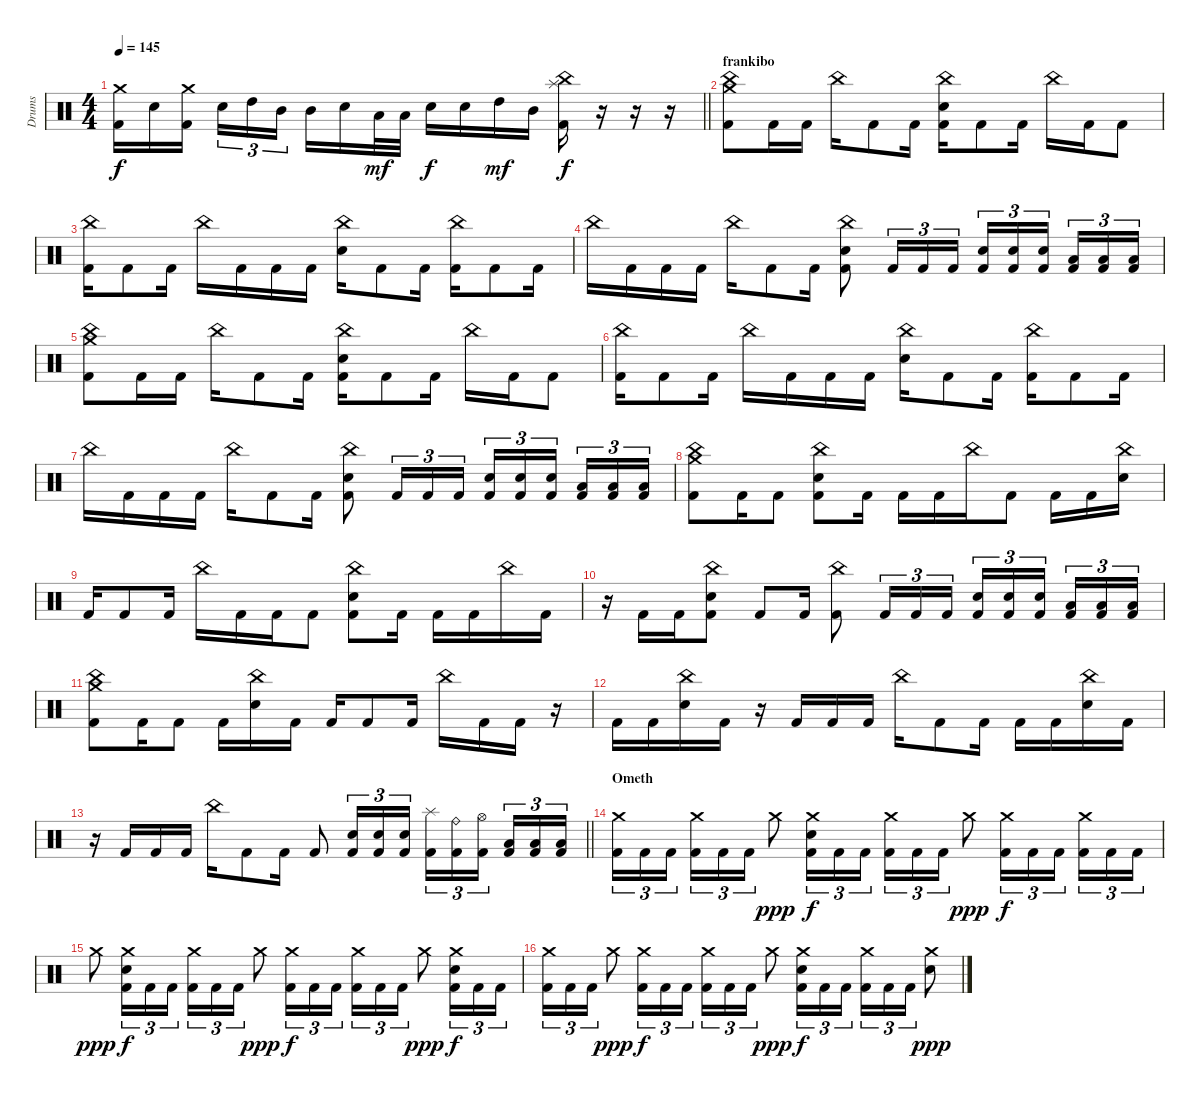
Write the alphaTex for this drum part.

\track ("Drums" "Drums") {instrument percussion}
\staff {score}
\articulation defaults
\ts (4 4)
\tempo 145
\clef neutral
\barLineRight lightlight
\ks c
("Crash medium (hit)" "Kick (hit) 2").16{dy f} "Electric Snare (hit)".16 ("Crash medium (hit)" "Kick (hit) 2").16{beam splitsecondary} "Electric Snare (hit)".16{tu (3 2)} "High Tom (hit)".16{tu (3 2)} "Mid Tom (hit)".16{tu (3 2) beam splitsecondary} "Mid Tom (hit)".16 "Electric Snare (hit)".16 "Low Tom (hit)".32{dy mf} "Low Tom (hit)".32 "Electric Snare (hit)".16{dy f} "Electric Snare (hit)".16 "High Tom (hit)".16{dy mf} "Mid Tom (hit)".16 ("China (hit)" "Splash (hit)" "Kick (hit) 2").16{dy f} r.16 r.16 r.16 |
\section ("" "frankibo")
("Crash medium (hit)" "China (hit)" "Kick (hit) 2").8 "Kick (hit) 2".16 "Kick (hit) 2".16 "China (hit)".16 "Kick (hit) 2".8 "Kick (hit) 2".16 ("China (hit)" "Electric Snare (hit)" "Kick (hit) 2").16 "Kick (hit) 2".8 "Kick (hit) 2".16 "China (hit)".16 "Kick (hit) 2".16 "Kick (hit) 2".8 |
("China (hit)" "Kick (hit) 2").16 "Kick (hit) 2".8 "Kick (hit) 2".16 "China (hit)".16 "Kick (hit) 2".16 "Kick (hit) 2".16 "Kick (hit) 2".16 ("China (hit)" "Electric Snare (hit)").16 "Kick (hit) 2".8 "Kick (hit) 2".16 ("China (hit)" "Kick (hit) 2").16 "Kick (hit) 2".8 "Kick (hit) 2".16 |
"China (hit)".16 "Kick (hit) 2".16 "Kick (hit) 2".16 "Kick (hit) 2".16 "China (hit)".16 "Kick (hit) 2".8 "Kick (hit) 2".16 ("China (hit)" "Electric Snare (hit)" "Kick (hit) 2").8 "Kick (hit) 2".16{tu (3 2)} "Kick (hit) 2".16{tu (3 2)} "Kick (hit) 2".16{tu (3 2)} ("Electric Snare (hit)" "Kick (hit) 2").16{tu (3 2)} ("Electric Snare (hit)" "Kick (hit) 2").16{tu (3 2)} ("Electric Snare (hit)" "Kick (hit) 2").16{tu (3 2) beam splitsecondary} ("Low Tom (hit)" "Kick (hit) 2").16{tu (3 2)} ("Low Tom (hit)" "Kick (hit) 2").16{tu (3 2)} ("Low Tom (hit)" "Kick (hit) 2").16{tu (3 2)} |
("Crash medium (hit)" "China (hit)" "Kick (hit) 2").8 "Kick (hit) 2".16 "Kick (hit) 2".16 "China (hit)".16 "Kick (hit) 2".8 "Kick (hit) 2".16 ("China (hit)" "Electric Snare (hit)" "Kick (hit) 2").16 "Kick (hit) 2".8 "Kick (hit) 2".16 "China (hit)".16 "Kick (hit) 2".16 "Kick (hit) 2".8 |
("China (hit)" "Kick (hit) 2").16 "Kick (hit) 2".8 "Kick (hit) 2".16 "China (hit)".16 "Kick (hit) 2".16 "Kick (hit) 2".16 "Kick (hit) 2".16 ("China (hit)" "Electric Snare (hit)").16 "Kick (hit) 2".8 "Kick (hit) 2".16 ("China (hit)" "Kick (hit) 2").16 "Kick (hit) 2".8 "Kick (hit) 2".16 |
"China (hit)".16 "Kick (hit) 2".16 "Kick (hit) 2".16 "Kick (hit) 2".16 "China (hit)".16 "Kick (hit) 2".8 "Kick (hit) 2".16 ("China (hit)" "Electric Snare (hit)" "Kick (hit) 2").8 "Kick (hit) 2".16{tu (3 2)} "Kick (hit) 2".16{tu (3 2)} "Kick (hit) 2".16{tu (3 2)} ("Electric Snare (hit)" "Kick (hit) 2").16{tu (3 2)} ("Electric Snare (hit)" "Kick (hit) 2").16{tu (3 2)} ("Electric Snare (hit)" "Kick (hit) 2").16{tu (3 2) beam splitsecondary} ("Low Tom (hit)" "Kick (hit) 2").16{tu (3 2)} ("Low Tom (hit)" "Kick (hit) 2").16{tu (3 2)} ("Low Tom (hit)" "Kick (hit) 2").16{tu (3 2)} |
("Crash medium (hit)" "China (hit)" "Kick (hit) 2").8 "Kick (hit) 2".16 "Kick (hit) 2".8 ("China (hit)" "Electric Snare (hit)" "Kick (hit) 2").8 "Kick (hit) 2".16 "Kick (hit) 2".16 "Kick (hit) 2".16 "China (hit)".16 "Kick (hit) 2".8 "Kick (hit) 2".16 "Kick (hit) 2".16 ("China (hit)" "Electric Snare (hit)").16 |
"Kick (hit) 2".16 "Kick (hit) 2".8 "Kick (hit) 2".16 "China (hit)".16 "Kick (hit) 2".16 "Kick (hit) 2".16 "Kick (hit) 2".8 ("China (hit)" "Electric Snare (hit)" "Kick (hit) 2").8 "Kick (hit) 2".16 "Kick (hit) 2".16 "Kick (hit) 2".16 "China (hit)".16 "Kick (hit) 2".16 |
r.16 "Kick (hit) 2".16 "Kick (hit) 2".16 ("China (hit)" "Electric Snare (hit)" "Kick (hit) 2").8 "Kick (hit) 2".8 "Kick (hit) 2".16 ("China (hit)" "Kick (hit) 2").8 "Kick (hit) 2".16{tu (3 2)} "Kick (hit) 2".16{tu (3 2)} "Kick (hit) 2".16{tu (3 2)} ("Electric Snare (hit)" "Kick (hit) 2").16{tu (3 2)} ("Electric Snare (hit)" "Kick (hit) 2").16{tu (3 2)} ("Electric Snare (hit)" "Kick (hit) 2").16{tu (3 2) beam splitsecondary} ("Low Tom (hit)" "Kick (hit) 2").16{tu (3 2)} ("Low Tom (hit)" "Kick (hit) 2").16{tu (3 2)} ("Low Tom (hit)" "Kick (hit) 2").16{tu (3 2)} |
("Crash medium (hit)" "China (hit)" "Kick (hit) 2").8 "Kick (hit) 2".16 "Kick (hit) 2".8 "Kick (hit) 2".16 ("China (hit)" "Electric Snare (hit)").16 "Kick (hit) 2".16 "Kick (hit) 2".16 "Kick (hit) 2".8 "Kick (hit) 2".16 "China (hit)".16 "Kick (hit) 2".16 "Kick (hit) 2".16 r.16 |
"Kick (hit) 2".16 "Kick (hit) 2".16 ("China (hit)" "Electric Snare (hit)").16 "Kick (hit) 2".16 r.16 "Kick (hit) 2".16 "Kick (hit) 2".16 "Kick (hit) 2".16 "China (hit)".16 "Kick (hit) 2".8 "Kick (hit) 2".16 "Kick (hit) 2".16 "Kick (hit) 2".16 ("China (hit)" "Electric Snare (hit)").16 "Kick (hit) 2".16 |
\barLineRight lightlight
r.16 "Kick (hit) 2".16 "Kick (hit) 2".16 "Kick (hit) 2".16 "China (hit)".16 "Kick (hit) 2".8 "Kick (hit) 2".16 "Kick (hit) 2".8 ("Electric Snare (hit)" "Kick (hit) 2").16{tu (3 2)} ("Electric Snare (hit)" "Kick (hit) 2").16{tu (3 2)} ("Electric Snare (hit)" "Kick (hit) 2").16{tu (3 2)} ("Splash (hit)" "Kick (hit) 2").16{tu (3 2)} ("Ride (bell)" "Kick (hit) 2").16{tu (3 2)} ("Hi-Hat (open)" "Kick (hit) 2").16{tu (3 2) beam splitsecondary} ("Low Tom (hit)" "Kick (hit) 2").16{tu (3 2)} ("Low Tom (hit)" "Kick (hit) 2").16{tu (3 2)} ("Low Tom (hit)" "Kick (hit) 2").16{tu (3 2)} |
\section ("" "Ometh")
("Crash medium (hit)" "Kick (hit) 2").16{tu (3 2)} "Kick (hit) 2".16{tu (3 2)} "Kick (hit) 2".16{tu (3 2) beam splitsecondary} ("Crash medium (hit)" "Kick (hit) 2").16{tu (3 2)} "Kick (hit) 2".16{tu (3 2)} "Kick (hit) 2".16{tu (3 2)} "Crash medium (hit)".8{dy ppp} ("Crash medium (hit)" "Electric Snare (hit)" "Kick (hit) 2").16{tu (3 2) dy f} "Kick (hit) 2".16{tu (3 2)} "Kick (hit) 2".16{tu (3 2)} ("Crash medium (hit)" "Kick (hit) 2").16{tu (3 2)} "Kick (hit) 2".16{tu (3 2)} "Kick (hit) 2".16{tu (3 2)} "Crash medium (hit)".8{dy ppp} ("Crash medium (hit)" "Kick (hit) 2").16{tu (3 2) dy f} "Kick (hit) 2".16{tu (3 2)} "Kick (hit) 2".16{tu (3 2) beam splitsecondary} ("Crash medium (hit)" "Kick (hit) 2").16{tu (3 2)} "Kick (hit) 2".16{tu (3 2)} "Kick (hit) 2".16{tu (3 2)} |
"Crash medium (hit)".8{dy ppp} ("Crash medium (hit)" "Electric Snare (hit)" "Kick (hit) 2").16{tu (3 2) dy f} "Kick (hit) 2".16{tu (3 2)} "Kick (hit) 2".16{tu (3 2)} ("Crash medium (hit)" "Kick (hit) 2").16{tu (3 2)} "Kick (hit) 2".16{tu (3 2)} "Kick (hit) 2".16{tu (3 2)} "Crash medium (hit)".8{dy ppp} ("Crash medium (hit)" "Kick (hit) 2").16{tu (3 2) dy f} "Kick (hit) 2".16{tu (3 2)} "Kick (hit) 2".16{tu (3 2) beam splitsecondary} ("Crash medium (hit)" "Kick (hit) 2").16{tu (3 2)} "Kick (hit) 2".16{tu (3 2)} "Kick (hit) 2".16{tu (3 2)} "Crash medium (hit)".8{dy ppp} ("Crash medium (hit)" "Electric Snare (hit)" "Kick (hit) 2").16{tu (3 2) dy f} "Kick (hit) 2".16{tu (3 2)} "Kick (hit) 2".16{tu (3 2)} |
("Crash medium (hit)" "Kick (hit) 2").16{tu (3 2)} "Kick (hit) 2".16{tu (3 2)} "Kick (hit) 2".16{tu (3 2)} "Crash medium (hit)".8{dy ppp} ("Crash medium (hit)" "Kick (hit) 2").16{tu (3 2) dy f} "Kick (hit) 2".16{tu (3 2)} "Kick (hit) 2".16{tu (3 2) beam splitsecondary} ("Crash medium (hit)" "Kick (hit) 2").16{tu (3 2)} "Kick (hit) 2".16{tu (3 2)} "Kick (hit) 2".16{tu (3 2)} "Crash medium (hit)".8{dy ppp} ("Crash medium (hit)" "Electric Snare (hit)" "Kick (hit) 2").16{tu (3 2) dy f} "Kick (hit) 2".16{tu (3 2)} "Kick (hit) 2".16{tu (3 2)} ("Crash medium (hit)" "Kick (hit) 2").16{tu (3 2)} "Kick (hit) 2".16{tu (3 2)} "Kick (hit) 2".16{tu (3 2)} ("Crash medium (hit)" "Electric Snare (hit)").8{dy ppp}
